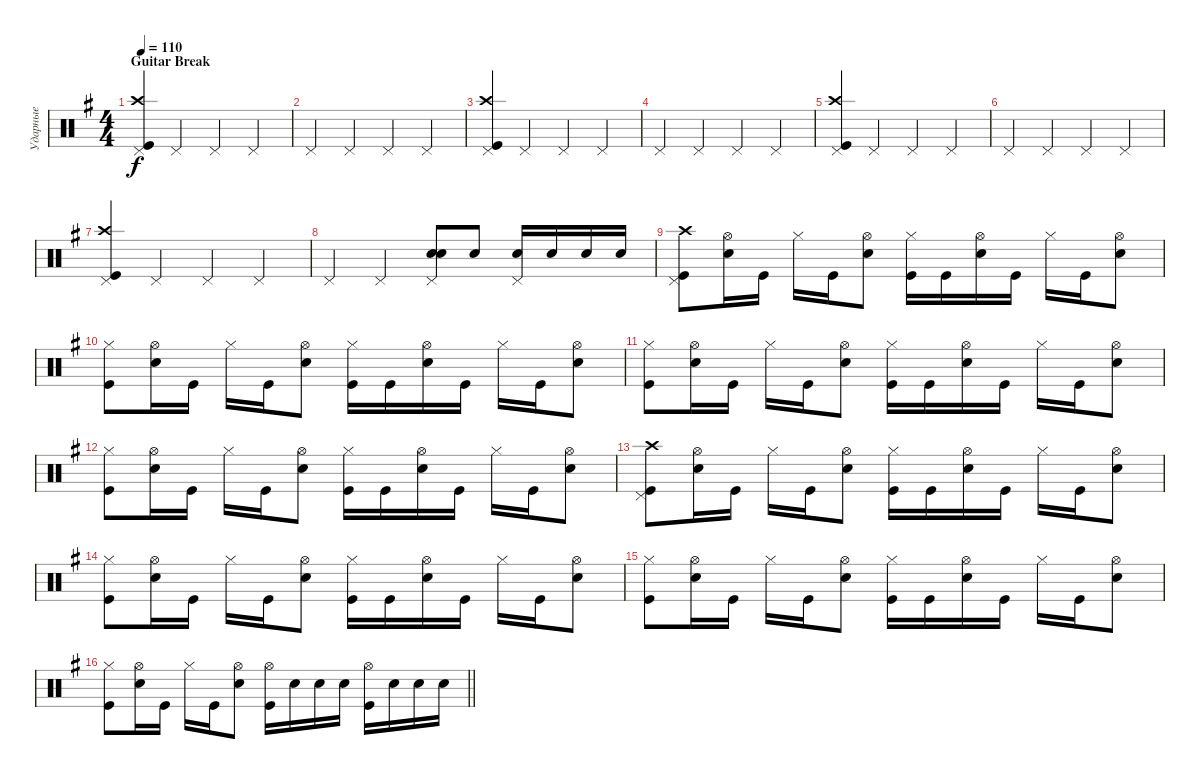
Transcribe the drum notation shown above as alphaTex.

\track ("Ударные" "Ударные") {instrument percussion}
\staff {score}
\articulation defaults
\ts (4 4)
\section ("" "Guitar Break")
\tempo 110
\clef neutral
\ks eminor
("Kick (hit)" "Crash high (hit)" "Pedal Hi-Hat (hit)").4{dy f} "Pedal Hi-Hat (hit)".4 "Pedal Hi-Hat (hit)".4 "Pedal Hi-Hat (hit)".4 |
"Pedal Hi-Hat (hit)".4 "Pedal Hi-Hat (hit)".4 "Pedal Hi-Hat (hit)".4 "Pedal Hi-Hat (hit)".4 |
("Kick (hit)" "Crash high (hit)" "Pedal Hi-Hat (hit)").4 "Pedal Hi-Hat (hit)".4 "Pedal Hi-Hat (hit)".4 "Pedal Hi-Hat (hit)".4 |
"Pedal Hi-Hat (hit)".4 "Pedal Hi-Hat (hit)".4 "Pedal Hi-Hat (hit)".4 "Pedal Hi-Hat (hit)".4 |
("Kick (hit)" "Crash high (hit)" "Pedal Hi-Hat (hit)").4 "Pedal Hi-Hat (hit)".4 "Pedal Hi-Hat (hit)".4 "Pedal Hi-Hat (hit)".4 |
"Pedal Hi-Hat (hit)".4 "Pedal Hi-Hat (hit)".4 "Pedal Hi-Hat (hit)".4 "Pedal Hi-Hat (hit)".4 |
("Kick (hit)" "Crash high (hit)" "Pedal Hi-Hat (hit)").4 "Pedal Hi-Hat (hit)".4 "Pedal Hi-Hat (hit)".4 "Pedal Hi-Hat (hit)".4 |
"Pedal Hi-Hat (hit)".4 "Pedal Hi-Hat (hit)".4 ("Snare (hit) 2" "Snare (hit) 2" "Pedal Hi-Hat (hit)").8{bd 120} "Snare (hit) 2".8 ("Snare (hit) 2" "Pedal Hi-Hat (hit)").16 "Snare (hit) 2".16 "Snare (hit) 2".16 "Snare (hit) 2".16 |
("Kick (hit)" "Pedal Hi-Hat (hit)" "Crash high (hit)").8 ("Snare (hit) 2" "Hi-Hat (open)").16 "Kick (hit)".16 "Hi-Hat (closed)".16 "Kick (hit)".16 ("Snare (hit) 2" "Hi-Hat (open)").8 ("Kick (hit)" "Hi-Hat (closed)").16 "Kick (hit)".16 ("Snare (hit) 2" "Hi-Hat (open)").16 "Kick (hit)".16 "Hi-Hat (closed)".16 "Kick (hit)".16 ("Snare (hit) 2" "Hi-Hat (open)").8 |
("Kick (hit)" "Hi-Hat (closed)").8 ("Snare (hit) 2" "Hi-Hat (open)").16 "Kick (hit)".16 "Hi-Hat (closed)".16 "Kick (hit)".16 ("Snare (hit) 2" "Hi-Hat (open)").8 ("Kick (hit)" "Hi-Hat (closed)").16 "Kick (hit)".16 ("Snare (hit) 2" "Hi-Hat (open)").16 "Kick (hit)".16 "Hi-Hat (closed)".16 "Kick (hit)".16 ("Snare (hit) 2" "Hi-Hat (open)").8 |
("Kick (hit)" "Hi-Hat (closed)").8 ("Snare (hit) 2" "Hi-Hat (open)").16 "Kick (hit)".16 "Hi-Hat (closed)".16 "Kick (hit)".16 ("Snare (hit) 2" "Hi-Hat (open)").8 ("Kick (hit)" "Hi-Hat (closed)").16 "Kick (hit)".16 ("Snare (hit) 2" "Hi-Hat (open)").16 "Kick (hit)".16 "Hi-Hat (closed)".16 "Kick (hit)".16 ("Snare (hit) 2" "Hi-Hat (open)").8 |
("Kick (hit)" "Hi-Hat (closed)").8 ("Snare (hit) 2" "Hi-Hat (open)").16 "Kick (hit)".16 "Hi-Hat (closed)".16 "Kick (hit)".16 ("Snare (hit) 2" "Hi-Hat (open)").8 ("Kick (hit)" "Hi-Hat (closed)").16 "Kick (hit)".16 ("Snare (hit) 2" "Hi-Hat (open)").16 "Kick (hit)".16 "Hi-Hat (closed)".16 "Kick (hit)".16 ("Snare (hit) 2" "Hi-Hat (open)").8 |
("Kick (hit)" "Pedal Hi-Hat (hit)" "Crash high (hit)").8 ("Snare (hit) 2" "Hi-Hat (open)").16 "Kick (hit)".16 "Hi-Hat (closed)".16 "Kick (hit)".16 ("Snare (hit) 2" "Hi-Hat (open)").8 ("Kick (hit)" "Hi-Hat (closed)").16 "Kick (hit)".16 ("Snare (hit) 2" "Hi-Hat (open)").16 "Kick (hit)".16 "Hi-Hat (closed)".16 "Kick (hit)".16 ("Snare (hit) 2" "Hi-Hat (open)").8 |
("Kick (hit)" "Hi-Hat (closed)").8 ("Snare (hit) 2" "Hi-Hat (open)").16 "Kick (hit)".16 "Hi-Hat (closed)".16 "Kick (hit)".16 ("Snare (hit) 2" "Hi-Hat (open)").8 ("Kick (hit)" "Hi-Hat (closed)").16 "Kick (hit)".16 ("Snare (hit) 2" "Hi-Hat (open)").16 "Kick (hit)".16 "Hi-Hat (closed)".16 "Kick (hit)".16 ("Snare (hit) 2" "Hi-Hat (open)").8 |
("Kick (hit)" "Hi-Hat (closed)").8 ("Snare (hit) 2" "Hi-Hat (open)").16 "Kick (hit)".16 "Hi-Hat (closed)".16 "Kick (hit)".16 ("Snare (hit) 2" "Hi-Hat (open)").8 ("Kick (hit)" "Hi-Hat (closed)").16 "Kick (hit)".16 ("Snare (hit) 2" "Hi-Hat (open)").16 "Kick (hit)".16 "Hi-Hat (closed)".16 "Kick (hit)".16 ("Snare (hit) 2" "Hi-Hat (open)").8 |
\barLineRight lightlight
("Kick (hit)" "Hi-Hat (closed)").8 ("Snare (hit) 2" "Hi-Hat (open)").16 "Kick (hit)".16 "Hi-Hat (closed)".16 "Kick (hit)".16 ("Snare (hit) 2" "Hi-Hat (open)").8 ("Kick (hit)" "Hi-Hat (open)").16 "Snare (hit) 2".16 "Snare (hit) 2".16 "Snare (hit) 2".16 ("Kick (hit)" "Hi-Hat (open)").16 "Snare (hit) 2".16 "Snare (hit) 2".16 "Snare (hit) 2".16
